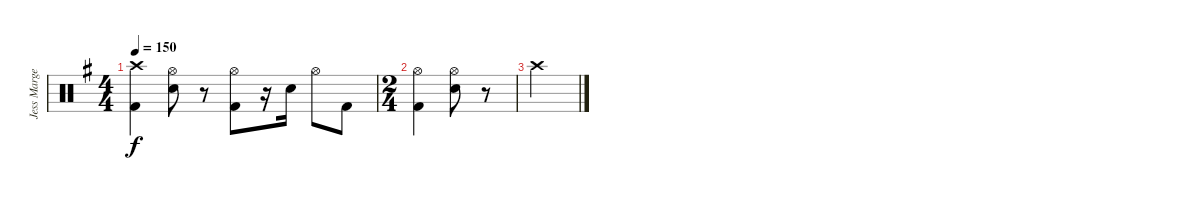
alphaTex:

\track ("Jess Margera" "Jess Marge") {instrument percussion}
\staff {score}
\articulation defaults
\ts (4 4)
\tempo 150
\clef neutral
\ks g
("Crash high (hit)" "Kick (hit) 2").4{dy f} ("Hi-Hat (open)" "Electric Snare (hit)").8 r.8 ("Hi-Hat (open)" "Kick (hit) 2").8 r.16 "Electric Snare (hit)".16 "Hi-Hat (open)".8 "Kick (hit) 2".8 |
\ts (2 4)
("Hi-Hat (open)" "Kick (hit) 2").4 ("Hi-Hat (open)" "Electric Snare (hit)").8 r.8 |
"Crash high (hit)".2
